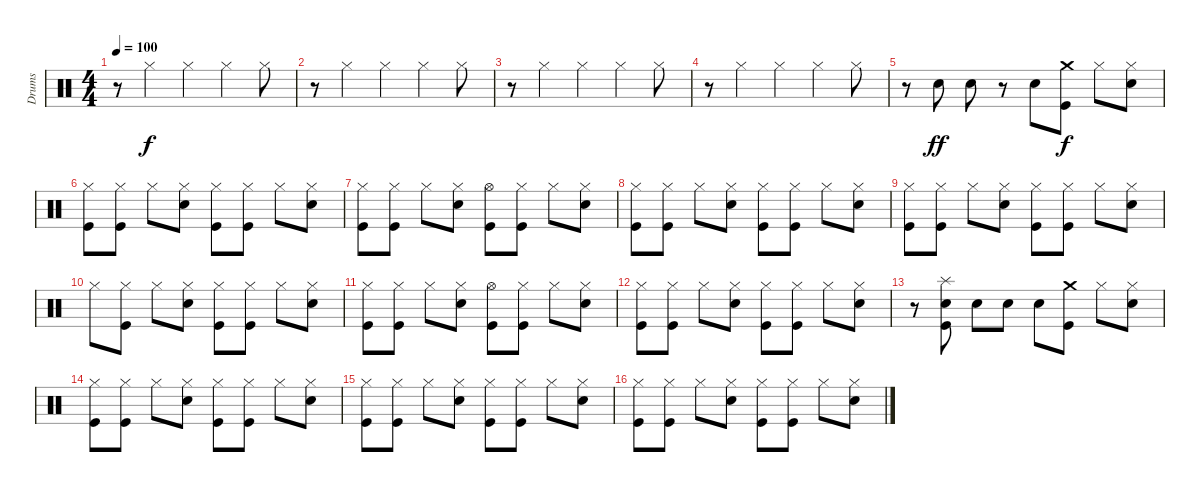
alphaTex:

\track ("Drums" "Drums") {instrument percussion}
\staff {score}
\articulation defaults
\ts (4 4)
\tempo 100
\clef neutral
\ks c
r.8{dy f} "Hi-Hat (closed)".4 "Hi-Hat (closed)".4 "Hi-Hat (closed)".4 "Hi-Hat (closed)".8 |
r.8 "Hi-Hat (closed)".4 "Hi-Hat (closed)".4 "Hi-Hat (closed)".4 "Hi-Hat (closed)".8 |
r.8 "Hi-Hat (closed)".4 "Hi-Hat (closed)".4 "Hi-Hat (closed)".4 "Hi-Hat (closed)".8 |
r.8 "Hi-Hat (closed)".4 "Hi-Hat (closed)".4 "Hi-Hat (closed)".4 "Hi-Hat (closed)".8 |
r.8 "Snare (hit) 2".8{dy ff} "Snare (hit) 2".8 r.8 "Snare (hit) 2".8 ("Crash medium (hit)" "Kick (hit)").8{dy f} "Hi-Hat (closed)".8 ("Hi-Hat (closed)" "Snare (hit) 2").8 |
("Hi-Hat (closed)" "Kick (hit)").8 ("Hi-Hat (closed)" "Kick (hit)").8 "Hi-Hat (closed)".8 ("Hi-Hat (closed)" "Snare (hit) 2").8 ("Hi-Hat (closed)" "Kick (hit)").8 ("Hi-Hat (closed)" "Kick (hit)").8 "Hi-Hat (closed)".8 ("Hi-Hat (closed)" "Snare (hit) 2").8 |
("Hi-Hat (closed)" "Kick (hit)").8 ("Hi-Hat (closed)" "Kick (hit)").8 "Hi-Hat (closed)".8 ("Hi-Hat (closed)" "Snare (hit) 2").8 ("Hi-Hat (open)" "Kick (hit)").8 ("Hi-Hat (closed)" "Kick (hit)").8 "Hi-Hat (closed)".8 ("Hi-Hat (closed)" "Snare (hit) 2").8 |
("Hi-Hat (closed)" "Kick (hit)").8 ("Hi-Hat (closed)" "Kick (hit)").8 "Hi-Hat (closed)".8 ("Hi-Hat (closed)" "Snare (hit) 2").8 ("Hi-Hat (closed)" "Kick (hit)").8 ("Hi-Hat (closed)" "Kick (hit)").8 "Hi-Hat (closed)".8 ("Hi-Hat (closed)" "Snare (hit) 2").8 |
("Hi-Hat (closed)" "Kick (hit)").8 ("Hi-Hat (closed)" "Kick (hit)").8 "Hi-Hat (closed)".8 ("Hi-Hat (closed)" "Snare (hit) 2").8 ("Hi-Hat (closed)" "Kick (hit)").8 ("Hi-Hat (closed)" "Kick (hit)").8 "Hi-Hat (closed)".8 ("Hi-Hat (closed)" "Snare (hit) 2").8 |
"Hi-Hat (closed)".8 ("Hi-Hat (closed)" "Kick (hit)").8 "Hi-Hat (closed)".8 ("Hi-Hat (closed)" "Snare (hit) 2").8 ("Hi-Hat (closed)" "Kick (hit)").8 ("Hi-Hat (closed)" "Kick (hit)").8 "Hi-Hat (closed)".8 ("Hi-Hat (closed)" "Snare (hit) 2").8 |
("Hi-Hat (closed)" "Kick (hit)").8 ("Hi-Hat (closed)" "Kick (hit)").8 "Hi-Hat (closed)".8 ("Hi-Hat (closed)" "Snare (hit) 2").8 ("Hi-Hat (open)" "Kick (hit)").8 ("Hi-Hat (closed)" "Kick (hit)").8 "Hi-Hat (closed)".8 ("Hi-Hat (closed)" "Snare (hit) 2").8 |
("Hi-Hat (closed)" "Kick (hit)").8 ("Hi-Hat (closed)" "Kick (hit)").8 "Hi-Hat (closed)".8 ("Hi-Hat (closed)" "Snare (hit) 2").8 ("Hi-Hat (closed)" "Kick (hit)").8 ("Hi-Hat (closed)" "Kick (hit)").8 "Hi-Hat (closed)".8 ("Hi-Hat (closed)" "Snare (hit) 2").8 |
r.8 ("Splash (hit)" "Snare (hit) 2" "Kick (hit)").8 "Snare (hit) 2".8 "Snare (hit) 2".8 "Snare (hit) 2".8 ("Crash medium (hit)" "Kick (hit)").8 "Hi-Hat (closed)".8 ("Hi-Hat (closed)" "Snare (hit) 2").8 |
("Hi-Hat (closed)" "Kick (hit)").8 ("Hi-Hat (closed)" "Kick (hit)").8 "Hi-Hat (closed)".8 ("Hi-Hat (closed)" "Snare (hit) 2").8 ("Hi-Hat (closed)" "Kick (hit)").8 ("Hi-Hat (closed)" "Kick (hit)").8 "Hi-Hat (closed)".8 ("Hi-Hat (closed)" "Snare (hit) 2").8 |
("Hi-Hat (closed)" "Kick (hit)").8 ("Hi-Hat (closed)" "Kick (hit)").8 "Hi-Hat (closed)".8 ("Hi-Hat (closed)" "Snare (hit) 2").8 ("Hi-Hat (closed)" "Kick (hit)").8 ("Hi-Hat (closed)" "Kick (hit)").8 "Hi-Hat (closed)".8 ("Hi-Hat (closed)" "Snare (hit) 2").8 |
("Hi-Hat (closed)" "Kick (hit)").8 ("Hi-Hat (closed)" "Kick (hit)").8 "Hi-Hat (closed)".8 ("Hi-Hat (closed)" "Snare (hit) 2").8 ("Hi-Hat (closed)" "Kick (hit)").8 ("Hi-Hat (closed)" "Kick (hit)").8 "Hi-Hat (closed)".8 ("Hi-Hat (closed)" "Snare (hit) 2").8
